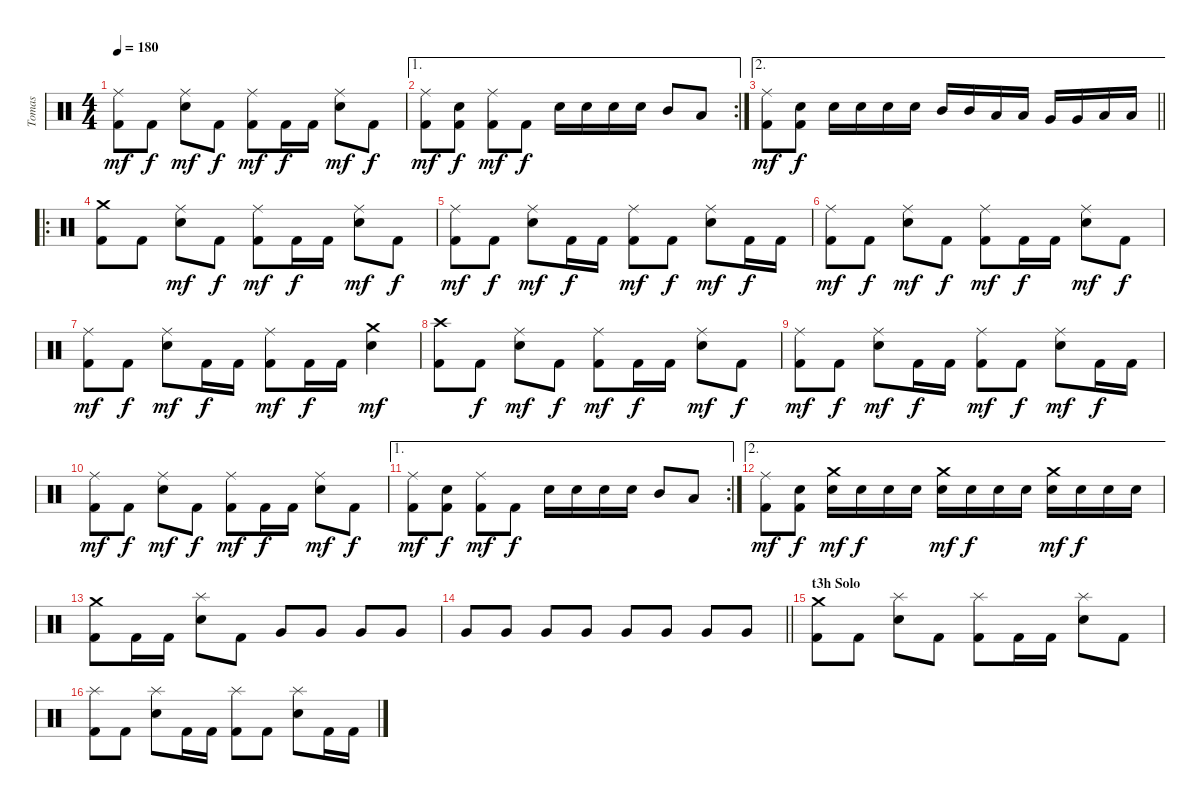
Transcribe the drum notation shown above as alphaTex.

\track ("Tomas" "Tomas") {instrument percussion}
\staff {score}
\articulation defaults
\ts (4 4)
\tempo 180
\clef neutral
\ks c
("Kick (hit) 2" "Ride (middle)").8{dy mf} "Kick (hit) 2".8{dy f} ("Electric Snare (hit)" "Ride (middle)").8{dy mf} "Kick (hit) 2".8{dy f} ("Kick (hit) 2" "Ride (middle)").8{dy mf} "Kick (hit) 2".16{dy f} "Kick (hit) 2".16 ("Electric Snare (hit)" "Ride (middle)").8{dy mf} "Kick (hit) 2".8{dy f} |
\ae 1
\rc 2
("Kick (hit) 2" "Ride (middle)").8{dy mf} ("Kick (hit) 2" "Electric Snare (hit)").8{dy f} ("Kick (hit) 2" "Ride (middle)").8{dy mf} "Kick (hit) 2".8{dy f} "Electric Snare (hit)".16 "Electric Snare (hit)".16 "Electric Snare (hit)".16 "Electric Snare (hit)".16 "Mid Tom (hit)".8 "Low Tom (hit)".8 |
\ae 2
\barLineRight lightlight
("Kick (hit) 2" "Ride (middle)").8{dy mf} ("Kick (hit) 2" "Electric Snare (hit)").8{dy f} "Electric Snare (hit)".16 "Electric Snare (hit)".16 "Electric Snare (hit)".16 "Electric Snare (hit)".16 "Mid Tom (hit)".16 "Mid Tom (hit)".16 "Low Tom (hit)".16 "Low Tom (hit)".16 "Very Low Tom (hit)".16 "Very Low Tom (hit)".16 "Low Floor Tom (hit)".16 "Low Floor Tom (hit)".16 |
\ro
("Kick (hit) 2" "Crash medium (hit)").8 "Kick (hit) 2".8 ("Electric Snare (hit)" "Ride (middle)").8{dy mf} "Kick (hit) 2".8{dy f} ("Kick (hit) 2" "Ride (middle)").8{dy mf} "Kick (hit) 2".16{dy f} "Kick (hit) 2".16 ("Electric Snare (hit)" "Ride (middle)").8{dy mf} "Kick (hit) 2".8{dy f} |
("Kick (hit) 2" "Ride (middle)").8{dy mf} "Kick (hit) 2".8{dy f} ("Electric Snare (hit)" "Ride (middle)").8{dy mf} "Kick (hit) 2".16{dy f} "Kick (hit) 2".16 ("Kick (hit) 2" "Ride (middle)").8{dy mf} "Kick (hit) 2".8{dy f} ("Electric Snare (hit)" "Ride (middle)").8{dy mf} "Kick (hit) 2".16{dy f} "Kick (hit) 2".16 |
("Kick (hit) 2" "Ride (middle)").8{dy mf} "Kick (hit) 2".8{dy f} ("Electric Snare (hit)" "Ride (middle)").8{dy mf} "Kick (hit) 2".8{dy f} ("Kick (hit) 2" "Ride (middle)").8{dy mf} "Kick (hit) 2".16{dy f} "Kick (hit) 2".16 ("Electric Snare (hit)" "Ride (middle)").8{dy mf} "Kick (hit) 2".8{dy f} |
("Kick (hit) 2" "Ride (middle)").8{dy mf} "Kick (hit) 2".8{dy f} ("Electric Snare (hit)" "Ride (middle)").8{dy mf} "Kick (hit) 2".16{dy f} "Kick (hit) 2".16 ("Kick (hit) 2" "Ride (middle)").8{dy mf} "Kick (hit) 2".16{dy f} "Kick (hit) 2".16 ("Electric Snare (hit)" "Crash medium (hit)").4{dy mf} |
("Kick (hit) 2" "Crash high (hit)").8 "Kick (hit) 2".8{dy f} ("Electric Snare (hit)" "Ride (middle)").8{dy mf} "Kick (hit) 2".8{dy f} ("Kick (hit) 2" "Ride (middle)").8{dy mf} "Kick (hit) 2".16{dy f} "Kick (hit) 2".16 ("Electric Snare (hit)" "Ride (middle)").8{dy mf} "Kick (hit) 2".8{dy f} |
("Kick (hit) 2" "Ride (middle)").8{dy mf} "Kick (hit) 2".8{dy f} ("Electric Snare (hit)" "Ride (middle)").8{dy mf} "Kick (hit) 2".16{dy f} "Kick (hit) 2".16 ("Kick (hit) 2" "Ride (middle)").8{dy mf} "Kick (hit) 2".8{dy f} ("Electric Snare (hit)" "Ride (middle)").8{dy mf} "Kick (hit) 2".16{dy f} "Kick (hit) 2".16 |
("Kick (hit) 2" "Ride (middle)").8{dy mf} "Kick (hit) 2".8{dy f} ("Electric Snare (hit)" "Ride (middle)").8{dy mf} "Kick (hit) 2".8{dy f} ("Kick (hit) 2" "Ride (middle)").8{dy mf} "Kick (hit) 2".16{dy f} "Kick (hit) 2".16 ("Electric Snare (hit)" "Ride (middle)").8{dy mf} "Kick (hit) 2".8{dy f} |
\ae 1
\rc 2
("Kick (hit) 2" "Ride (middle)").8{dy mf} ("Kick (hit) 2" "Electric Snare (hit)").8{dy f} ("Kick (hit) 2" "Ride (middle)").8{dy mf} "Kick (hit) 2".8{dy f} "Electric Snare (hit)".16 "Electric Snare (hit)".16 "Electric Snare (hit)".16 "Electric Snare (hit)".16 "Mid Tom (hit)".8 "Low Tom (hit)".8 |
\ae 2
("Kick (hit) 2" "Ride (middle)").8{dy mf} ("Kick (hit) 2" "Electric Snare (hit)").8{dy f} ("Electric Snare (hit)" "Crash medium (hit)").16{dy mf} "Electric Snare (hit)".16{dy f} "Electric Snare (hit)".16 "Electric Snare (hit)".16 ("Electric Snare (hit)" "Crash medium (hit)").16{dy mf} "Electric Snare (hit)".16{dy f} "Electric Snare (hit)".16 "Electric Snare (hit)".16 ("Electric Snare (hit)" "Crash medium (hit)").16{dy mf} "Electric Snare (hit)".16{dy f} "Electric Snare (hit)".16 "Electric Snare (hit)".16 |
("Kick (hit) 2" "Crash medium (hit)").8 "Kick (hit) 2".16 "Kick (hit) 2".16 ("Electric Snare (hit)" "Splash (hit)").8 "Kick (hit) 2".8 "Very Low Tom (hit)".8 "Very Low Tom (hit)".8 "Very Low Tom (hit)".8 "Very Low Tom (hit)".8 |
\barLineRight lightlight "Very Low Tom (hit)".8 "Very Low Tom (hit)".8 "Very Low Tom (hit)".8 "Very Low Tom (hit)".8 "Very Low Tom (hit)".8 "Very Low Tom (hit)".8 "Very Low Tom (hit)".8 "Very Low Tom (hit)".8
|
\section ("" "t3h Solo")
("Kick (hit) 2" "Crash medium (hit)").8 "Kick (hit) 2".8 ("Electric Snare (hit)" "Splash (hit)").8 "Kick (hit) 2".8 ("Kick (hit) 2" "Splash (hit)").8 "Kick (hit) 2".16 "Kick (hit) 2".16 ("Electric Snare (hit)" "Splash (hit)").8 "Kick (hit) 2".8 |
("Kick (hit) 2" "Splash (hit)").8 "Kick (hit) 2".8 ("Electric Snare (hit)" "Splash (hit)").8 "Kick (hit) 2".16 "Kick (hit) 2".16 ("Kick (hit) 2" "Splash (hit)").8 "Kick (hit) 2".8 ("Electric Snare (hit)" "Splash (hit)").8 "Kick (hit) 2".16 "Kick (hit) 2".16
